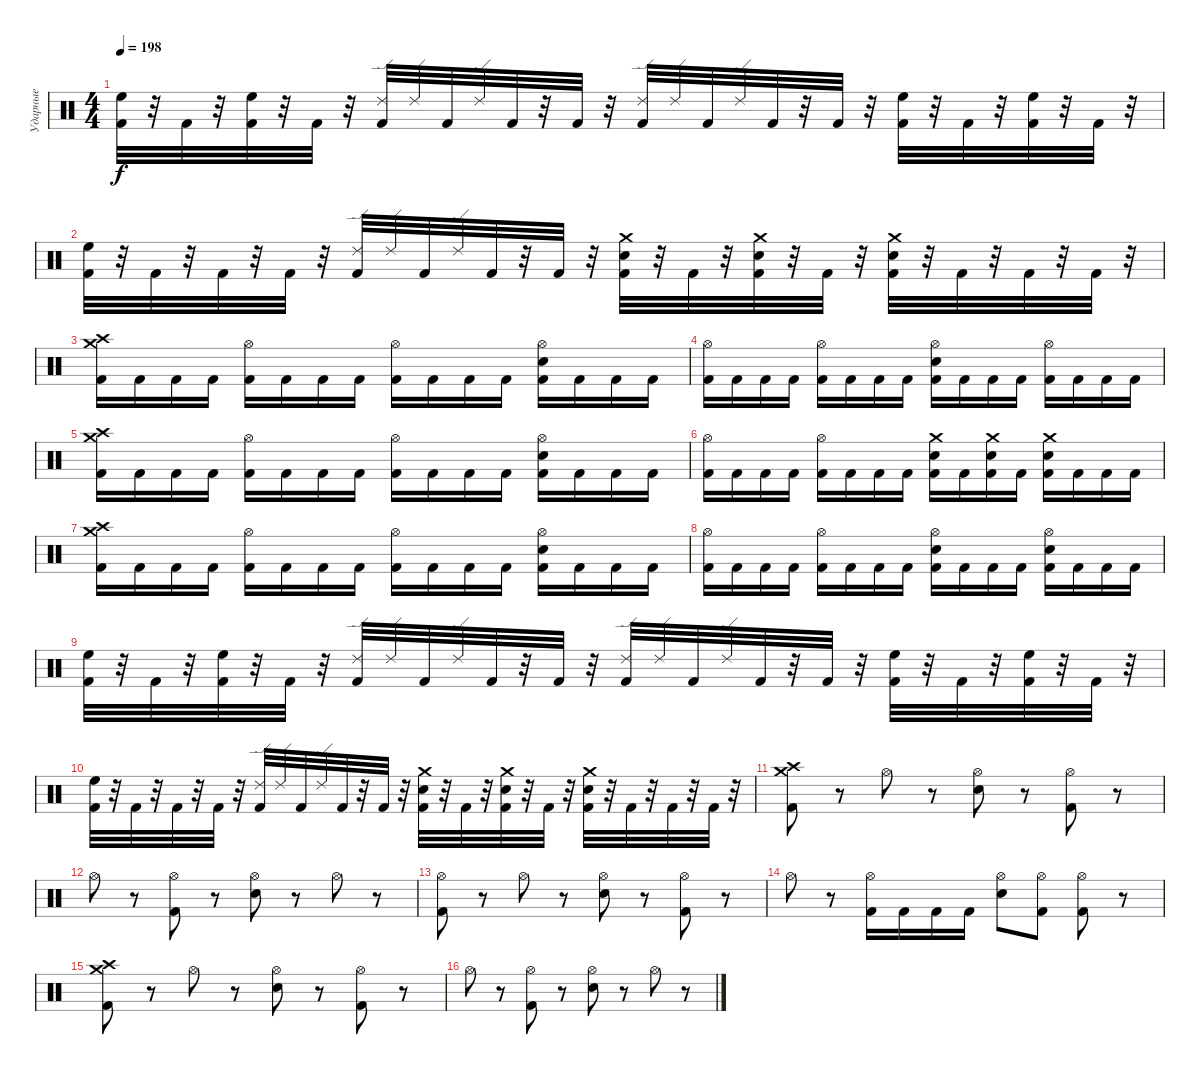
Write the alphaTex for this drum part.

\track ("Ударные" "Ударные") {instrument percussion}
\staff {score}
\articulation defaults
\ts (4 4)
\tempo 198
\clef neutral
\ks c
("Kick (hit) 2" "High Floor Tom (hit)").32{dy f} r.32 "Kick (hit) 2".32 r.32 ("Kick (hit) 2" "High Floor Tom (hit)").32 r.32 "Kick (hit) 2".32 r.32 ("Kick (hit) 2" "Ride (edge) 2").32 "Ride (edge) 2".32 "Kick (hit) 2".32 "Ride (edge) 2".32 "Kick (hit) 2".32 r.32 "Kick (hit) 2".32 r.32 ("Kick (hit) 2" "Ride (edge) 2").32 "Ride (edge) 2".32 "Kick (hit) 2".32 "Ride (edge) 2".32 "Kick (hit) 2".32 r.32 "Kick (hit) 2".32 r.32 ("Kick (hit) 2" "High Floor Tom (hit)").32 r.32 "Kick (hit) 2".32 r.32 ("Kick (hit) 2" "High Floor Tom (hit)").32 r.32 "Kick (hit) 2".32 r.32 |
("Kick (hit) 2" "High Floor Tom (hit)").32 r.32 "Kick (hit) 2".32 r.32 "Kick (hit) 2".32 r.32 "Kick (hit) 2".32 r.32 ("Kick (hit) 2" "Ride (edge) 2").32 "Ride (edge) 2".32 "Kick (hit) 2".32 "Ride (edge) 2".32 "Kick (hit) 2".32 r.32 "Kick (hit) 2".32 r.32 ("Kick (hit) 2" "Electric Snare (hit)" "Crash medium (hit)").32 r.32 "Kick (hit) 2".32 r.32 ("Kick (hit) 2" "Electric Snare (hit)" "Crash medium (hit)").32 r.32 "Kick (hit) 2".32 r.32 ("Kick (hit) 2" "Electric Snare (hit)" "Crash medium (hit)").32 r.32 "Kick (hit) 2".32 r.32 "Kick (hit) 2".32 r.32 "Kick (hit) 2".32 r.32 |
("Kick (hit) 2" "Crash medium (hit)" "Crash high (hit)").16 "Kick (hit) 2".16 "Kick (hit) 2".16 "Kick (hit) 2".16 ("Kick (hit) 2" "Hi-Hat (open)").16 "Kick (hit) 2".16 "Kick (hit) 2".16 "Kick (hit) 2".16 ("Kick (hit) 2" "Hi-Hat (open)").16 "Kick (hit) 2".16 "Kick (hit) 2".16 "Kick (hit) 2".16 ("Kick (hit) 2" "Hi-Hat (open)" "Electric Snare (hit)").16 "Kick (hit) 2".16 "Kick (hit) 2".16 "Kick (hit) 2".16 |
("Kick (hit) 2" "Hi-Hat (open)").16 "Kick (hit) 2".16 "Kick (hit) 2".16 "Kick (hit) 2".16 ("Kick (hit) 2" "Hi-Hat (open)").16 "Kick (hit) 2".16 "Kick (hit) 2".16 "Kick (hit) 2".16 ("Kick (hit) 2" "Hi-Hat (open)" "Electric Snare (hit)").16 "Kick (hit) 2".16 "Kick (hit) 2".16 "Kick (hit) 2".16 ("Kick (hit) 2" "Hi-Hat (open)").16 "Kick (hit) 2".16 "Kick (hit) 2".16 "Kick (hit) 2".16 |
("Kick (hit) 2" "Crash medium (hit)" "Crash high (hit)").16 "Kick (hit) 2".16 "Kick (hit) 2".16 "Kick (hit) 2".16 ("Kick (hit) 2" "Hi-Hat (open)").16 "Kick (hit) 2".16 "Kick (hit) 2".16 "Kick (hit) 2".16 ("Kick (hit) 2" "Hi-Hat (open)").16 "Kick (hit) 2".16 "Kick (hit) 2".16 "Kick (hit) 2".16 ("Kick (hit) 2" "Hi-Hat (open)" "Electric Snare (hit)").16 "Kick (hit) 2".16 "Kick (hit) 2".16 "Kick (hit) 2".16 |
("Kick (hit) 2" "Hi-Hat (open)").16 "Kick (hit) 2".16 "Kick (hit) 2".16 "Kick (hit) 2".16 ("Kick (hit) 2" "Hi-Hat (open)").16 "Kick (hit) 2".16 "Kick (hit) 2".16 "Kick (hit) 2".16 ("Kick (hit) 2" "Crash medium (hit)" "Electric Snare (hit)").16 "Kick (hit) 2".16 ("Kick (hit) 2" "Crash medium (hit)" "Electric Snare (hit)").16 "Kick (hit) 2".16 ("Kick (hit) 2" "Crash medium (hit)" "Electric Snare (hit)").16 "Kick (hit) 2".16 "Kick (hit) 2".16 "Kick (hit) 2".16 |
("Kick (hit) 2" "Crash medium (hit)" "Crash high (hit)").16 "Kick (hit) 2".16 "Kick (hit) 2".16 "Kick (hit) 2".16 ("Kick (hit) 2" "Hi-Hat (open)").16 "Kick (hit) 2".16 "Kick (hit) 2".16 "Kick (hit) 2".16 ("Kick (hit) 2" "Hi-Hat (open)").16 "Kick (hit) 2".16 "Kick (hit) 2".16 "Kick (hit) 2".16 ("Kick (hit) 2" "Hi-Hat (open)" "Electric Snare (hit)").16 "Kick (hit) 2".16 "Kick (hit) 2".16 "Kick (hit) 2".16 |
("Kick (hit) 2" "Hi-Hat (open)").16 "Kick (hit) 2".16 "Kick (hit) 2".16 "Kick (hit) 2".16 ("Kick (hit) 2" "Hi-Hat (open)").16 "Kick (hit) 2".16 "Kick (hit) 2".16 "Kick (hit) 2".16 ("Kick (hit) 2" "Hi-Hat (open)" "Electric Snare (hit)").16 "Kick (hit) 2".16 "Kick (hit) 2".16 "Kick (hit) 2".16 ("Kick (hit) 2" "Hi-Hat (open)" "Electric Snare (hit)").16 "Kick (hit) 2".16 "Kick (hit) 2".16 "Kick (hit) 2".16 |
("Kick (hit) 2" "High Floor Tom (hit)").32 r.32 "Kick (hit) 2".32 r.32 ("Kick (hit) 2" "High Floor Tom (hit)").32 r.32 "Kick (hit) 2".32 r.32 ("Kick (hit) 2" "Ride (edge) 2").32 "Ride (edge) 2".32 "Kick (hit) 2".32 "Ride (edge) 2".32 "Kick (hit) 2".32 r.32 "Kick (hit) 2".32 r.32 ("Kick (hit) 2" "Ride (edge) 2").32 "Ride (edge) 2".32 "Kick (hit) 2".32 "Ride (edge) 2".32 "Kick (hit) 2".32 r.32 "Kick (hit) 2".32 r.32 ("Kick (hit) 2" "High Floor Tom (hit)").32 r.32 "Kick (hit) 2".32 r.32 ("Kick (hit) 2" "High Floor Tom (hit)").32 r.32 "Kick (hit) 2".32 r.32 |
("Kick (hit) 2" "High Floor Tom (hit)").32 r.32 "Kick (hit) 2".32 r.32 "Kick (hit) 2".32 r.32 "Kick (hit) 2".32 r.32 ("Kick (hit) 2" "Ride (edge) 2").32 "Ride (edge) 2".32 "Kick (hit) 2".32 "Ride (edge) 2".32 "Kick (hit) 2".32 r.32 "Kick (hit) 2".32 r.32 ("Kick (hit) 2" "Electric Snare (hit)" "Crash medium (hit)").32 r.32 "Kick (hit) 2".32 r.32 ("Kick (hit) 2" "Electric Snare (hit)" "Crash medium (hit)").32 r.32 "Kick (hit) 2".32 r.32 ("Kick (hit) 2" "Electric Snare (hit)" "Crash medium (hit)").32 r.32 "Kick (hit) 2".32 r.32 "Kick (hit) 2".32 r.32 "Kick (hit) 2".32 r.32 |
("Crash medium (hit)" "Crash high (hit)" "Kick (hit) 2").8 r.8 "Hi-Hat (open)".8 r.8 ("Hi-Hat (open)" "Electric Snare (hit)").8 r.8 ("Hi-Hat (open)" "Kick (hit) 2").8 r.8 |
"Hi-Hat (open)".8 r.8 ("Hi-Hat (open)" "Kick (hit) 2").8 r.8 ("Hi-Hat (open)" "Electric Snare (hit)").8 r.8 "Hi-Hat (open)".8 r.8 |
("Hi-Hat (open)" "Kick (hit) 2").8 r.8 "Hi-Hat (open)".8 r.8 ("Hi-Hat (open)" "Electric Snare (hit)").8 r.8 ("Hi-Hat (open)" "Kick (hit) 2").8 r.8 |
"Hi-Hat (open)".8 r.8 ("Hi-Hat (open)" "Kick (hit) 2").16 "Kick (hit) 2".16 "Kick (hit) 2".16 "Kick (hit) 2".16 ("Hi-Hat (open)" "Electric Snare (hit)").8 ("Hi-Hat (open)" "Kick (hit) 2").8 ("Hi-Hat (open)" "Kick (hit) 2").8 r.8 |
("Crash medium (hit)" "Crash high (hit)" "Kick (hit) 2").8 r.8 "Hi-Hat (open)".8 r.8 ("Hi-Hat (open)" "Electric Snare (hit)").8 r.8 ("Hi-Hat (open)" "Kick (hit) 2").8 r.8 |
"Hi-Hat (open)".8 r.8 ("Hi-Hat (open)" "Kick (hit) 2").8 r.8 ("Hi-Hat (open)" "Electric Snare (hit)").8 r.8 "Hi-Hat (open)".8 r.8
